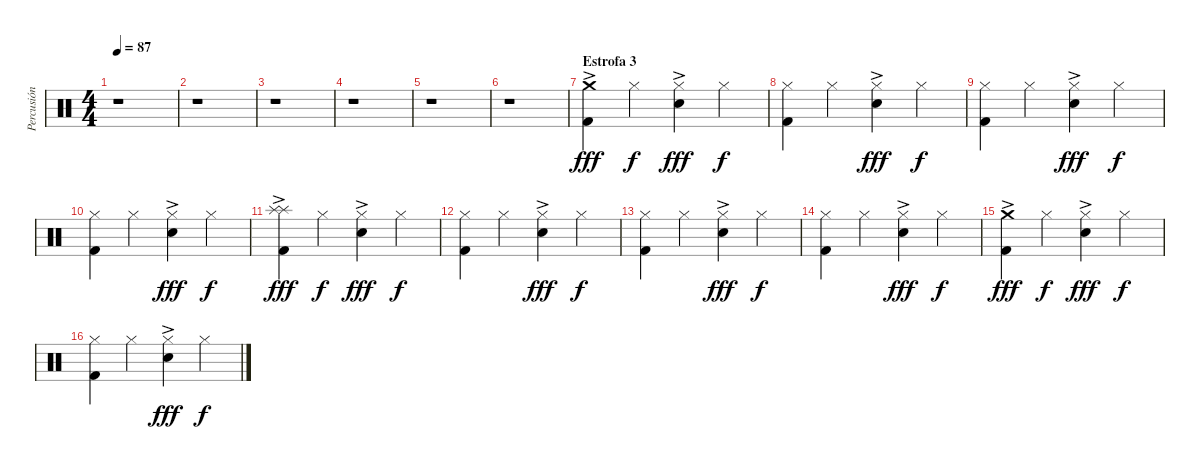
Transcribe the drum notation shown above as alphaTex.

\track ("Percusión" "Percusión") {instrument percussion}
\staff {score}
\articulation defaults
\ts (4 4)
\tempo 87
\clef neutral
\ks c
r.1{dy f} |
r.1 |
r.1 |
r.1 |
r.1 |
r.1 |
\section ("" "Estrofa 3")
("Crash medium (hit)"{ac} "Kick (hit) 2").4{dy fff} "Hi-Hat (closed)".4{dy f} ("Hi-Hat (closed)" "Snare (hit) 2"{ac}).4{dy fff} "Hi-Hat (closed)".4{dy f} |
("Hi-Hat (closed)" "Kick (hit) 2").4 "Hi-Hat (closed)".4 ("Hi-Hat (closed)" "Snare (hit) 2"{ac}).4{dy fff} "Hi-Hat (closed)".4{dy f} |
("Hi-Hat (closed)" "Kick (hit) 2").4 "Hi-Hat (closed)".4 ("Hi-Hat (closed)"{ac} "Snare (hit) 2"{ac}).4{dy fff} "Hi-Hat (closed)".4{dy f} |
("Hi-Hat (closed)" "Kick (hit) 2").4 "Hi-Hat (closed)".4 ("Hi-Hat (closed)"{ac} "Snare (hit) 2"{ac}).4{dy fff} "Hi-Hat (closed)".4{dy f} |
("Splash (hit)"{ac} "Splash (hit)" "Kick (hit) 2").4{dy fff} "Hi-Hat (closed)".4{dy f} ("Hi-Hat (closed)" "Snare (hit) 2"{ac}).4{dy fff} "Hi-Hat (closed)".4{dy f} |
("Hi-Hat (closed)" "Kick (hit) 2").4 "Hi-Hat (closed)".4 ("Hi-Hat (closed)" "Snare (hit) 2"{ac}).4{dy fff} "Hi-Hat (closed)".4{dy f} |
("Hi-Hat (closed)" "Kick (hit) 2").4 "Hi-Hat (closed)".4 ("Hi-Hat (closed)"{ac} "Snare (hit) 2"{ac}).4{dy fff} "Hi-Hat (closed)".4{dy f} |
("Hi-Hat (closed)" "Kick (hit) 2").4 "Hi-Hat (closed)".4 ("Hi-Hat (closed)"{ac} "Snare (hit) 2"{ac}).4{dy fff} "Hi-Hat (closed)".4{dy f} |
("Crash medium (hit)"{ac} "Kick (hit) 2").4{dy fff} "Hi-Hat (closed)".4{dy f} ("Hi-Hat (closed)" "Snare (hit) 2"{ac}).4{dy fff} "Hi-Hat (closed)".4{dy f} |
("Hi-Hat (closed)" "Kick (hit) 2").4 "Hi-Hat (closed)".4 ("Hi-Hat (closed)" "Snare (hit) 2"{ac}).4{dy fff} "Hi-Hat (closed)".4{dy f}
